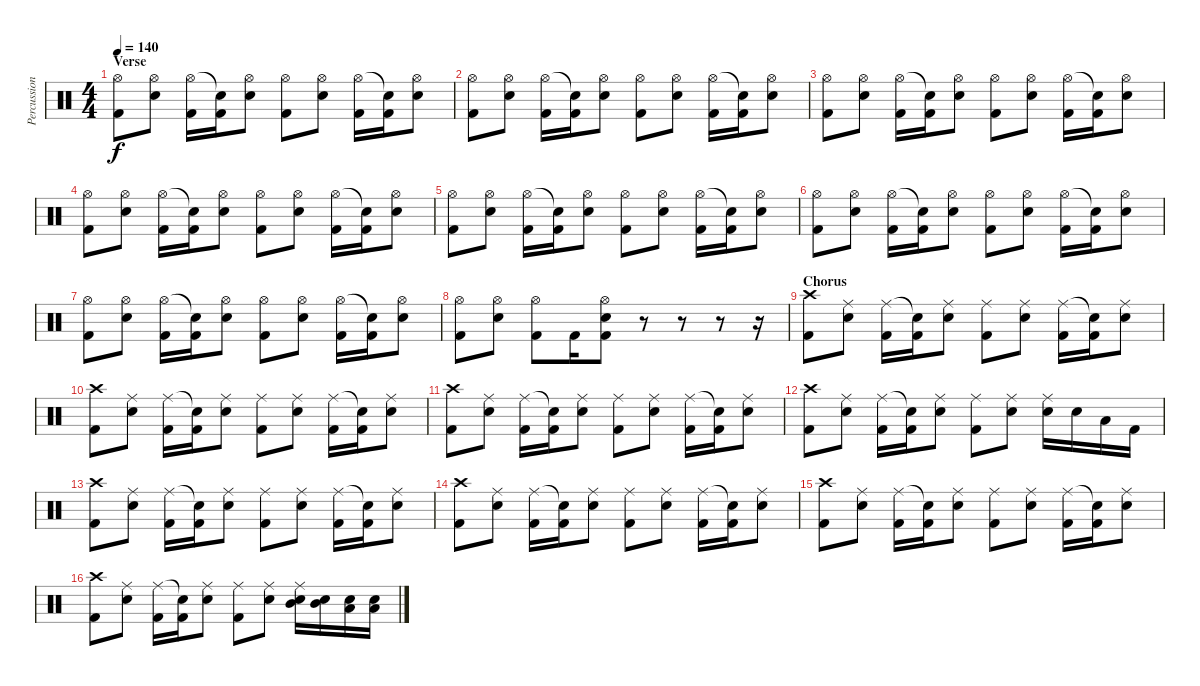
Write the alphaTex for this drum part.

\track ("Percussion" "Percussion") {instrument percussion}
\staff {score}
\articulation defaults
\ts (4 4)
\section ("" "Verse")
\tempo 140
\clef neutral
\ks c
("Hi-Hat (open)" "Kick (hit) 2").8{dy f} ("Hi-Hat (open)" "Electric Snare (hit)").8 ("Hi-Hat (open)" "Kick (hit) 2").16 ("Snare (hit)"{t} "Kick (hit) 2").16 ("Hi-Hat (open)" "Electric Snare (hit)").8 ("Hi-Hat (open)" "Kick (hit) 2").8 ("Hi-Hat (open)" "Electric Snare (hit)").8 ("Hi-Hat (open)" "Kick (hit) 2").16 ("Snare (hit)"{t} "Kick (hit) 2").16 ("Hi-Hat (open)" "Electric Snare (hit)").8 |
("Hi-Hat (open)" "Kick (hit) 2").8 ("Hi-Hat (open)" "Electric Snare (hit)").8 ("Hi-Hat (open)" "Kick (hit) 2").16 ("Snare (hit)"{t} "Kick (hit) 2").16 ("Hi-Hat (open)" "Electric Snare (hit)").8 ("Hi-Hat (open)" "Kick (hit) 2").8 ("Hi-Hat (open)" "Electric Snare (hit)").8 ("Hi-Hat (open)" "Kick (hit) 2").16 ("Snare (hit)"{t} "Kick (hit) 2").16 ("Hi-Hat (open)" "Electric Snare (hit)").8 |
("Hi-Hat (open)" "Kick (hit) 2").8 ("Hi-Hat (open)" "Electric Snare (hit)").8 ("Hi-Hat (open)" "Kick (hit) 2").16 ("Snare (hit)"{t} "Kick (hit) 2").16 ("Hi-Hat (open)" "Electric Snare (hit)").8 ("Hi-Hat (open)" "Kick (hit) 2").8 ("Hi-Hat (open)" "Electric Snare (hit)").8 ("Hi-Hat (open)" "Kick (hit) 2").16 ("Snare (hit)"{t} "Kick (hit) 2").16 ("Hi-Hat (open)" "Electric Snare (hit)").8 |
("Hi-Hat (open)" "Kick (hit) 2").8 ("Hi-Hat (open)" "Electric Snare (hit)").8 ("Hi-Hat (open)" "Kick (hit) 2").16 ("Snare (hit)"{t} "Kick (hit) 2").16 ("Hi-Hat (open)" "Electric Snare (hit)").8 ("Hi-Hat (open)" "Kick (hit) 2").8 ("Hi-Hat (open)" "Electric Snare (hit)").8 ("Hi-Hat (open)" "Kick (hit) 2").16 ("Snare (hit)"{t} "Kick (hit) 2").16 ("Hi-Hat (open)" "Electric Snare (hit)").8 |
("Hi-Hat (open)" "Kick (hit) 2").8 ("Hi-Hat (open)" "Electric Snare (hit)").8 ("Hi-Hat (open)" "Kick (hit) 2").16 ("Snare (hit)"{t} "Kick (hit) 2").16 ("Hi-Hat (open)" "Electric Snare (hit)").8 ("Hi-Hat (open)" "Kick (hit) 2").8 ("Hi-Hat (open)" "Electric Snare (hit)").8 ("Hi-Hat (open)" "Kick (hit) 2").16 ("Snare (hit)"{t} "Kick (hit) 2").16 ("Hi-Hat (open)" "Electric Snare (hit)").8 |
("Hi-Hat (open)" "Kick (hit) 2").8 ("Hi-Hat (open)" "Electric Snare (hit)").8 ("Hi-Hat (open)" "Kick (hit) 2").16 ("Snare (hit)"{t} "Kick (hit) 2").16 ("Hi-Hat (open)" "Electric Snare (hit)").8 ("Hi-Hat (open)" "Kick (hit) 2").8 ("Hi-Hat (open)" "Electric Snare (hit)").8 ("Hi-Hat (open)" "Kick (hit) 2").16 ("Snare (hit)"{t} "Kick (hit) 2").16 ("Hi-Hat (open)" "Electric Snare (hit)").8 |
("Hi-Hat (open)" "Kick (hit) 2").8 ("Hi-Hat (open)" "Electric Snare (hit)").8 ("Hi-Hat (open)" "Kick (hit) 2").16 ("Snare (hit)"{t} "Kick (hit) 2").16 ("Hi-Hat (open)" "Electric Snare (hit)").8 ("Hi-Hat (open)" "Kick (hit) 2").8 ("Hi-Hat (open)" "Electric Snare (hit)").8 ("Hi-Hat (open)" "Kick (hit) 2").16 ("Snare (hit)"{t} "Kick (hit) 2").16 ("Hi-Hat (open)" "Electric Snare (hit)").8 |
("Hi-Hat (open)" "Kick (hit) 2").8 ("Hi-Hat (open)" "Electric Snare (hit)").8 ("Hi-Hat (open)" "Kick (hit) 2").8 "Kick (hit) 2".16 ("Hi-Hat (open)" "Electric Snare (hit)" "Kick (hit) 2").8 r.8 r.8 r.8 r.16 |
\section ("" "Chorus")
("Crash high (hit)" "Kick (hit) 2").8 ("Ride (middle)" "Electric Snare (hit)").8 ("Ride (middle)" "Kick (hit) 2").16 ("Snare (hit)"{t} "Kick (hit) 2").16 ("Ride (middle)" "Electric Snare (hit)").8 ("Ride (middle)" "Kick (hit) 2").8 ("Ride (middle)" "Electric Snare (hit)").8 ("Ride (middle)" "Kick (hit) 2").16 ("Snare (hit)"{t} "Kick (hit) 2").16 ("Ride (middle)" "Electric Snare (hit)").8 |
("Crash high (hit)" "Kick (hit) 2").8 ("Ride (middle)" "Electric Snare (hit)").8 ("Ride (middle)" "Kick (hit) 2").16 ("Snare (hit)"{t} "Kick (hit) 2").16 ("Ride (middle)" "Electric Snare (hit)").8 ("Ride (middle)" "Kick (hit) 2").8 ("Ride (middle)" "Electric Snare (hit)").8 ("Ride (middle)" "Kick (hit) 2").16 ("Snare (hit)"{t} "Kick (hit) 2").16 ("Ride (middle)" "Electric Snare (hit)").8 |
("Crash high (hit)" "Kick (hit) 2").8 ("Ride (middle)" "Electric Snare (hit)").8 ("Ride (middle)" "Kick (hit) 2").16 ("Snare (hit)"{t} "Kick (hit) 2").16 ("Ride (middle)" "Electric Snare (hit)").8 ("Ride (middle)" "Kick (hit) 2").8 ("Ride (middle)" "Electric Snare (hit)").8 ("Ride (middle)" "Kick (hit) 2").16 ("Snare (hit)"{t} "Kick (hit) 2").16 ("Ride (middle)" "Electric Snare (hit)").8 |
("Crash high (hit)" "Kick (hit) 2").8 ("Ride (middle)" "Electric Snare (hit)").8 ("Ride (middle)" "Kick (hit) 2").16 ("Snare (hit)"{t} "Kick (hit) 2").16 ("Ride (middle)" "Electric Snare (hit)").8 ("Ride (middle)" "Kick (hit) 2").8 ("Ride (middle)" "Electric Snare (hit)").8 ("Ride (middle)" "Electric Snare (hit)").16 "Electric Snare (hit)".16 "Low Tom (hit)".16 "Kick (hit) 2".16 |
("Crash high (hit)" "Kick (hit) 2").8 ("Ride (middle)" "Electric Snare (hit)").8 ("Ride (middle)" "Kick (hit) 2").16 ("Snare (hit)"{t} "Kick (hit) 2").16 ("Ride (middle)" "Electric Snare (hit)").8 ("Ride (middle)" "Kick (hit) 2").8 ("Ride (middle)" "Electric Snare (hit)").8 ("Ride (middle)" "Kick (hit) 2").16 ("Snare (hit)"{t} "Kick (hit) 2").16 ("Ride (middle)" "Electric Snare (hit)").8 |
("Crash high (hit)" "Kick (hit) 2").8 ("Ride (middle)" "Electric Snare (hit)").8 ("Ride (middle)" "Kick (hit) 2").16 ("Snare (hit)"{t} "Kick (hit) 2").16 ("Ride (middle)" "Electric Snare (hit)").8 ("Ride (middle)" "Kick (hit) 2").8 ("Ride (middle)" "Electric Snare (hit)").8 ("Ride (middle)" "Kick (hit) 2").16 ("Snare (hit)"{t} "Kick (hit) 2").16 ("Ride (middle)" "Electric Snare (hit)").8 |
("Crash high (hit)" "Kick (hit) 2").8 ("Ride (middle)" "Electric Snare (hit)").8 ("Ride (middle)" "Kick (hit) 2").16 ("Snare (hit)"{t} "Kick (hit) 2").16 ("Ride (middle)" "Electric Snare (hit)").8 ("Ride (middle)" "Kick (hit) 2").8 ("Ride (middle)" "Electric Snare (hit)").8 ("Ride (middle)" "Kick (hit) 2").16 ("Snare (hit)"{t} "Kick (hit) 2").16 ("Ride (middle)" "Electric Snare (hit)").8 |
("Crash high (hit)" "Kick (hit) 2").8 ("Ride (middle)" "Electric Snare (hit)").8 ("Ride (middle)" "Kick (hit) 2").16 ("Snare (hit)"{t} "Kick (hit) 2").16 ("Ride (middle)" "Electric Snare (hit)").8 ("Ride (middle)" "Kick (hit) 2").8 ("Ride (middle)" "Electric Snare (hit)").8 ("Ride (middle)" "Electric Snare (hit)" "Mid Tom (hit)").16 ("Electric Snare (hit)" "Mid Tom (hit)").16 ("Electric Snare (hit)" "Low Tom (hit)").16 ("Electric Snare (hit)" "Low Tom (hit)").16
